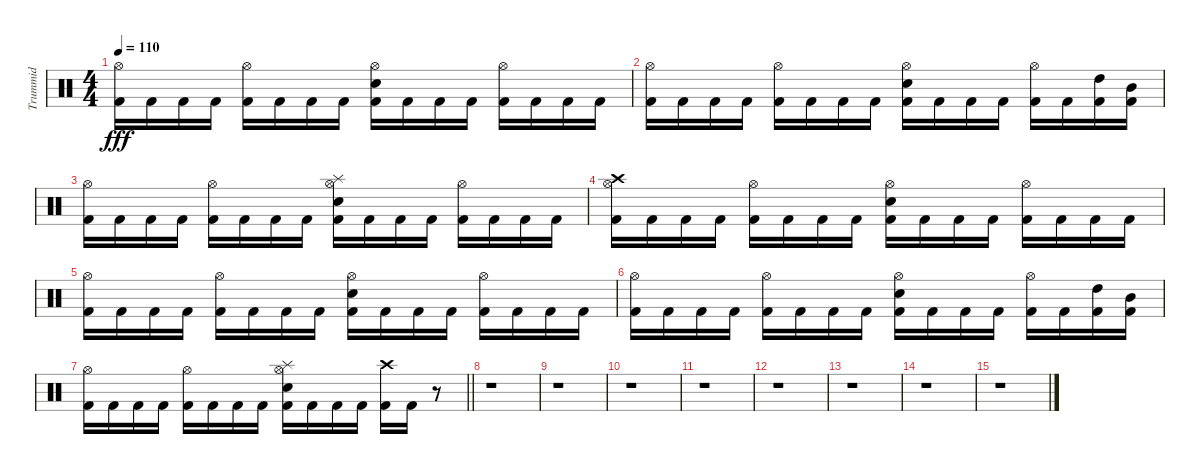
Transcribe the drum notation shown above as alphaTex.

\track ("Trummid" "Trummid") {instrument percussion}
\staff {score}
\articulation defaults
\ts (4 4)
\tempo 110
\clef neutral
\ks c
("Hi-Hat (open)" "Kick (hit) 2").16{dy fff} "Kick (hit) 2".16 "Kick (hit) 2".16 "Kick (hit) 2".16 ("Hi-Hat (open)" "Kick (hit) 2").16 "Kick (hit) 2".16 "Kick (hit) 2".16 "Kick (hit) 2".16 ("Hi-Hat (open)" "Snare (hit) 2" "Kick (hit) 2").16 "Kick (hit) 2".16 "Kick (hit) 2".16 "Kick (hit) 2".16 ("Hi-Hat (open)" "Kick (hit) 2").16 "Kick (hit) 2".16 "Kick (hit) 2".16 "Kick (hit) 2".16 |
("Hi-Hat (open)" "Kick (hit) 2").16 "Kick (hit) 2".16 "Kick (hit) 2".16 "Kick (hit) 2".16 ("Hi-Hat (open)" "Kick (hit) 2").16 "Kick (hit) 2".16 "Kick (hit) 2".16 "Kick (hit) 2".16 ("Hi-Hat (open)" "Snare (hit) 2" "Kick (hit) 2").16 "Kick (hit) 2".16 "Kick (hit) 2".16 "Kick (hit) 2".16 ("Hi-Hat (open)" "Kick (hit) 2").16 "Kick (hit) 2".16 ("High Tom (hit)" "Kick (hit) 2").16 ("Mid Tom (hit)" "Kick (hit) 2").16 |
("Hi-Hat (open)" "Kick (hit) 2").16 "Kick (hit) 2".16 "Kick (hit) 2".16 "Kick (hit) 2".16 ("Hi-Hat (open)" "Kick (hit) 2").16 "Kick (hit) 2".16 "Kick (hit) 2".16 "Kick (hit) 2".16 ("Splash (hit)" "Hi-Hat (open)" "Snare (hit) 2" "Kick (hit) 2").16 "Kick (hit) 2".16 "Kick (hit) 2".16 "Kick (hit) 2".16 ("Hi-Hat (open)" "Kick (hit) 2").16 "Kick (hit) 2".16 "Kick (hit) 2".16 "Kick (hit) 2".16 |
("Crash high (hit)" "Hi-Hat (open)" "Kick (hit) 2").16 "Kick (hit) 2".16 "Kick (hit) 2".16 "Kick (hit) 2".16 ("Hi-Hat (open)" "Kick (hit) 2").16 "Kick (hit) 2".16 "Kick (hit) 2".16 "Kick (hit) 2".16 ("Hi-Hat (open)" "Snare (hit) 2" "Kick (hit) 2").16 "Kick (hit) 2".16 "Kick (hit) 2".16 "Kick (hit) 2".16 ("Hi-Hat (open)" "Kick (hit) 2").16 "Kick (hit) 2".16 "Kick (hit) 2".16 "Kick (hit) 2".16 |
("Hi-Hat (open)" "Kick (hit) 2").16 "Kick (hit) 2".16 "Kick (hit) 2".16 "Kick (hit) 2".16 ("Hi-Hat (open)" "Kick (hit) 2").16 "Kick (hit) 2".16 "Kick (hit) 2".16 "Kick (hit) 2".16 ("Hi-Hat (open)" "Snare (hit) 2" "Kick (hit) 2").16 "Kick (hit) 2".16 "Kick (hit) 2".16 "Kick (hit) 2".16 ("Hi-Hat (open)" "Kick (hit) 2").16 "Kick (hit) 2".16 "Kick (hit) 2".16 "Kick (hit) 2".16 |
("Hi-Hat (open)" "Kick (hit) 2").16 "Kick (hit) 2".16 "Kick (hit) 2".16 "Kick (hit) 2".16 ("Hi-Hat (open)" "Kick (hit) 2").16 "Kick (hit) 2".16 "Kick (hit) 2".16 "Kick (hit) 2".16 ("Hi-Hat (open)" "Snare (hit) 2" "Kick (hit) 2").16 "Kick (hit) 2".16 "Kick (hit) 2".16 "Kick (hit) 2".16 ("Hi-Hat (open)" "Kick (hit) 2").16 "Kick (hit) 2".16 ("High Tom (hit)" "Kick (hit) 2").16 ("Mid Tom (hit)" "Kick (hit) 2").16 |
\barLineRight lightlight
("Hi-Hat (open)" "Kick (hit) 2").16 "Kick (hit) 2".16 "Kick (hit) 2".16 "Kick (hit) 2".16 ("Hi-Hat (open)" "Kick (hit) 2").16 "Kick (hit) 2".16 "Kick (hit) 2".16 "Kick (hit) 2".16 ("Splash (hit)" "Hi-Hat (open)" "Snare (hit) 2" "Kick (hit) 2").16 "Kick (hit) 2".16 "Kick (hit) 2".16 "Kick (hit) 2".16 ("Crash high (hit)" "Kick (hit) 2").16 "Kick (hit) 2".16{volume 0} r.8 |
r.1 |
r.1 |
r.1 |
r.1 |
r.1 |
r.1 |
r.1 |
r.1
